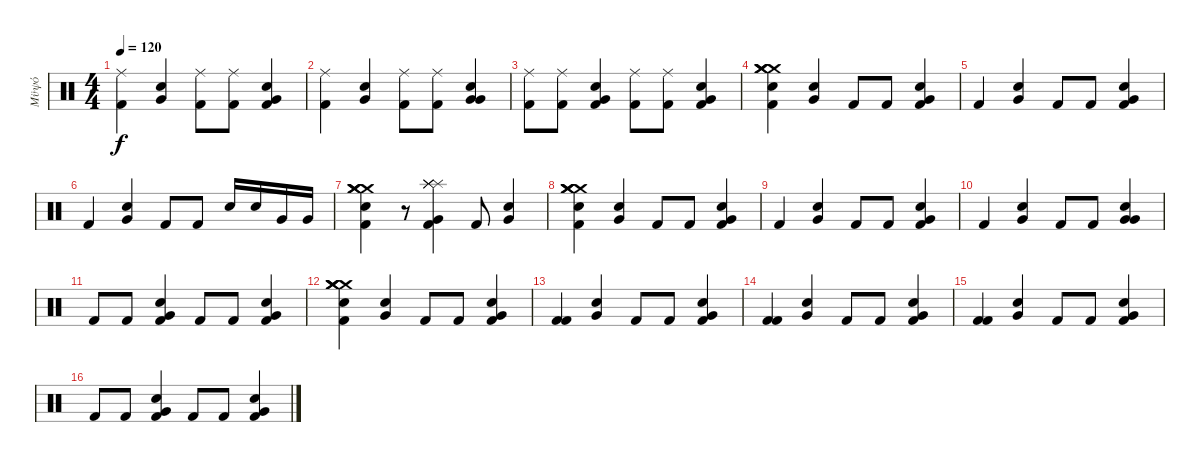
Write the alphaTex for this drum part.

\track ("Μϋψό" "Μϋψό") {instrument percussion}
\staff {score}
\articulation defaults
\ts (4 4)
\tempo 120
\clef neutral
\ks c
("Kick (hit) 2" "Ride (middle)").4{dy f} ("Electric Snare (hit)" "Very Low Tom (hit)").4 ("Kick (hit) 2" "Ride (middle)").8 ("Kick (hit) 2" "Ride (middle)").8 ("Electric Snare (hit)" "Kick (hit) 2" "Very Low Tom (hit)").4 |
("Kick (hit) 2" "Ride (middle)").4 ("Electric Snare (hit)" "Very Low Tom (hit)").4 ("Kick (hit) 2" "Ride (middle)").8 ("Kick (hit) 2" "Ride (middle)").8 ("Electric Snare (hit)" "Very Low Tom (hit)" "Very Low Tom (hit)").4 |
("Kick (hit) 2" "Ride (middle)").8 ("Kick (hit) 2" "Ride (middle)").8 ("Electric Snare (hit)" "Kick (hit) 2" "Very Low Tom (hit)").4 ("Kick (hit) 2" "Ride (middle)").8 ("Kick (hit) 2" "Ride (middle)").8 ("Electric Snare (hit)" "Kick (hit) 2" "Very Low Tom (hit)").4 |
("Kick (hit) 2" "Electric Snare (hit)" "Crash medium (hit)" "Crash medium (hit)" "Crash medium (hit)" "Crash medium (hit)").4 ("Electric Snare (hit)" "Very Low Tom (hit)").4 "Kick (hit) 2".8 "Kick (hit) 2".8 ("Electric Snare (hit)" "Kick (hit) 2" "Very Low Tom (hit)").4 |
"Kick (hit) 2".4 ("Electric Snare (hit)" "Very Low Tom (hit)").4 "Kick (hit) 2".8 "Kick (hit) 2".8 ("Electric Snare (hit)" "Kick (hit) 2" "Very Low Tom (hit)").4 |
"Kick (hit) 2".4 ("Electric Snare (hit)" "Very Low Tom (hit)").4 "Kick (hit) 2".8 "Kick (hit) 2".8 "Electric Snare (hit)".16 "Electric Snare (hit)".16 "Very Low Tom (hit)".16 "Very Low Tom (hit)".16 |
("Kick (hit) 2" "Electric Snare (hit)" "Crash medium (hit)" "Crash medium (hit)" "Crash medium (hit)" "Crash medium (hit)").4 r.8 ("Kick (hit) 2" "Very Low Tom (hit)" "Splash (hit)" "Splash (hit)" "Splash (hit)" "Splash (hit)").4 "Kick (hit) 2".8 ("Electric Snare (hit)" "Very Low Tom (hit)").4 |
("Kick (hit) 2" "Electric Snare (hit)" "Crash medium (hit)" "Crash medium (hit)" "Crash medium (hit)" "Crash medium (hit)").4 ("Electric Snare (hit)" "Very Low Tom (hit)").4 "Kick (hit) 2".8 "Kick (hit) 2".8 ("Electric Snare (hit)" "Kick (hit) 2" "Very Low Tom (hit)").4 |
"Kick (hit) 2".4 ("Electric Snare (hit)" "Very Low Tom (hit)").4 "Kick (hit) 2".8 "Kick (hit) 2".8 ("Electric Snare (hit)" "Kick (hit) 2" "Very Low Tom (hit)").4 |
"Kick (hit) 2".4 ("Electric Snare (hit)" "Very Low Tom (hit)").4 "Kick (hit) 2".8 "Kick (hit) 2".8 ("Electric Snare (hit)" "Very Low Tom (hit)" "Very Low Tom (hit)").4 |
"Kick (hit) 2".8 "Kick (hit) 2".8 ("Electric Snare (hit)" "Kick (hit) 2" "Very Low Tom (hit)").4 "Kick (hit) 2".8 "Kick (hit) 2".8 ("Electric Snare (hit)" "Kick (hit) 2" "Very Low Tom (hit)").4 |
("Kick (hit) 2" "Electric Snare (hit)" "Crash medium (hit)" "Crash medium (hit)" "Crash medium (hit)" "Crash medium (hit)").4 ("Electric Snare (hit)" "Very Low Tom (hit)").4 "Kick (hit) 2".8 "Kick (hit) 2".8 ("Electric Snare (hit)" "Kick (hit) 2" "Very Low Tom (hit)").4 |
("Kick (hit) 2" "Kick (hit) 2").4 ("Electric Snare (hit)" "Very Low Tom (hit)").4 "Kick (hit) 2".8 "Kick (hit) 2".8 ("Electric Snare (hit)" "Kick (hit) 2" "Very Low Tom (hit)").4 |
("Kick (hit) 2" "Kick (hit) 2").4 ("Electric Snare (hit)" "Very Low Tom (hit)").4 "Kick (hit) 2".8 "Kick (hit) 2".8 ("Electric Snare (hit)" "Kick (hit) 2" "Very Low Tom (hit)").4 |
("Kick (hit) 2" "Kick (hit) 2").4 ("Electric Snare (hit)" "Very Low Tom (hit)").4 "Kick (hit) 2".8 "Kick (hit) 2".8 ("Electric Snare (hit)" "Kick (hit) 2" "Very Low Tom (hit)").4 |
"Kick (hit) 2".8 "Kick (hit) 2".8 ("Electric Snare (hit)" "Kick (hit) 2" "Very Low Tom (hit)").4 "Kick (hit) 2".8 "Kick (hit) 2".8 ("Electric Snare (hit)" "Kick (hit) 2" "Very Low Tom (hit)").4
